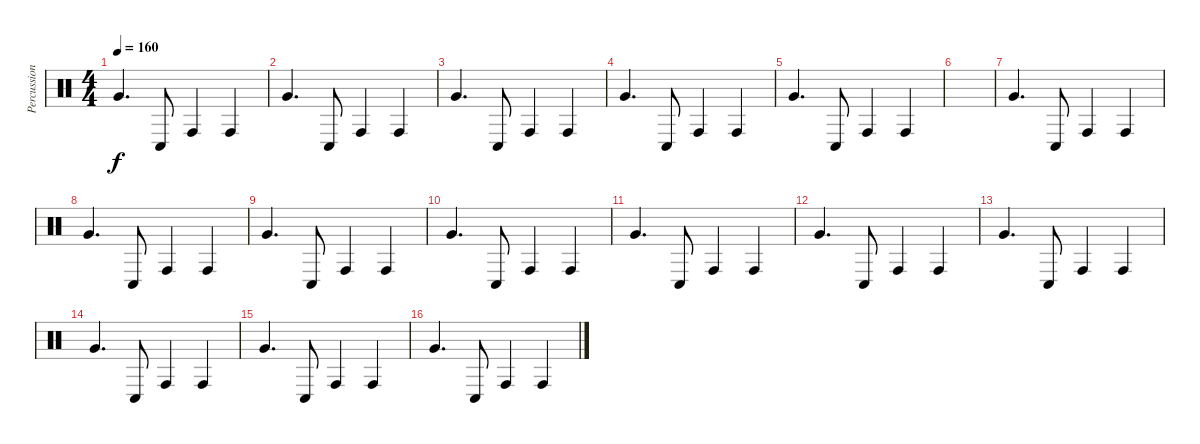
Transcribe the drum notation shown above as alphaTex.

\track ("Percussion 1" "Percussion") {instrument percussion}
\staff {score}
\articulation defaults
\ts (4 4)
\tempo 160
\clef neutral
\ks c "Very Low Tom (hit)".4{d dy f} "Conga low (hit)".8 "Conga high (hit)".4 "Conga high (hit)".4
|
"Very Low Tom (hit)".4{d} "Conga low (hit)".8 "Conga high (hit)".4 "Conga high (hit)".4 |
"Very Low Tom (hit)".4{d} "Conga low (hit)".8 "Conga high (hit)".4 "Conga high (hit)".4 |
"Very Low Tom (hit)".4{d} "Conga low (hit)".8 "Conga high (hit)".4 "Conga high (hit)".4 |
"Very Low Tom (hit)".4{d} "Conga low (hit)".8 "Conga high (hit)".4 "Conga high (hit)".4 |
|
"Very Low Tom (hit)".4{d} "Conga low (hit)".8 "Conga high (hit)".4 "Conga high (hit)".4 |
"Very Low Tom (hit)".4{d} "Conga low (hit)".8 "Conga high (hit)".4 "Conga high (hit)".4 |
"Very Low Tom (hit)".4{d} "Conga low (hit)".8 "Conga high (hit)".4 "Conga high (hit)".4 |
"Very Low Tom (hit)".4{d} "Conga low (hit)".8 "Conga high (hit)".4 "Conga high (hit)".4 |
"Very Low Tom (hit)".4{d} "Conga low (hit)".8 "Conga high (hit)".4 "Conga high (hit)".4 |
"Very Low Tom (hit)".4{d} "Conga low (hit)".8 "Conga high (hit)".4 "Conga high (hit)".4 |
"Very Low Tom (hit)".4{d} "Conga low (hit)".8 "Conga high (hit)".4 "Conga high (hit)".4 |
"Very Low Tom (hit)".4{d} "Conga low (hit)".8 "Conga high (hit)".4 "Conga high (hit)".4 |
"Very Low Tom (hit)".4{d} "Conga low (hit)".8 "Conga high (hit)".4 "Conga high (hit)".4 |
"Very Low Tom (hit)".4{d} "Conga low (hit)".8 "Conga high (hit)".4 "Conga high (hit)".4
